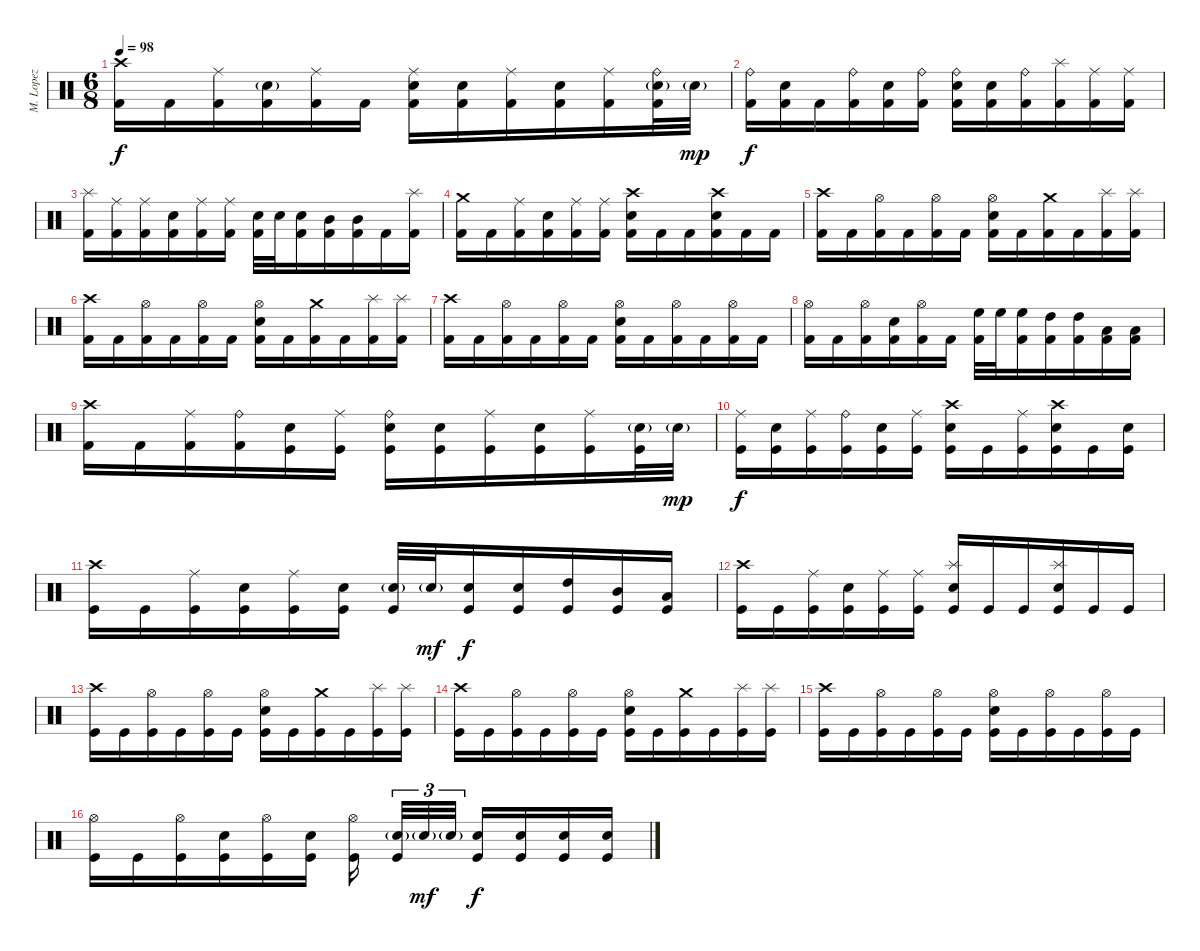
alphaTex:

\track ("M. Lopez" "M. Lopez") {instrument percussion}
\staff {score}
\articulation defaults
\ts (6 8)
\tempo 98
\clef neutral
\ks c
("Crash high (hit)" "Kick (hit) 2").16{dy f} "Kick (hit) 2".16 ("Ride (middle)" "Kick (hit) 2").16 ("Electric Snare (hit)"{g} "Kick (hit) 2").16 ("Ride (middle)" "Kick (hit) 2").16 "Kick (hit) 2".16 ("Ride (middle)" "Electric Snare (hit)" "Kick (hit) 2").16 ("Electric Snare (hit)" "Kick (hit) 2").16 ("Ride (middle)" "Kick (hit) 2").16 ("Electric Snare (hit)" "Kick (hit) 2").16 ("Ride (middle)" "Kick (hit) 2").16 ("Ride (bell)" "Electric Snare (hit)"{g} "Kick (hit) 2").32 "Electric Snare (hit)"{g}.32{dy mp} |
("Ride (bell)" "Kick (hit) 2").16{dy f} ("Electric Snare (hit)" "Kick (hit) 2").16 "Kick (hit) 2".16 ("Ride (bell)" "Kick (hit) 2").16 ("Electric Snare (hit)" "Kick (hit) 2").16 ("Ride (bell)" "Kick (hit) 2").16 ("Ride (bell)" "Electric Snare (hit)" "Kick (hit) 2").16 ("Electric Snare (hit)" "Kick (hit) 2").16 ("Ride (bell)" "Kick (hit) 2").16 ("Splash (hit)" "Kick (hit) 2").16 ("Ride (middle)" "Kick (hit) 2").16 ("Ride (middle)" "Kick (hit) 2").16 |
("Splash (hit)" "Kick (hit) 2").16 ("Ride (middle)" "Kick (hit) 2").16 ("Ride (middle)" "Kick (hit) 2").16 ("Electric Snare (hit)" "Kick (hit) 2").16 ("Ride (middle)" "Kick (hit) 2").16 ("Ride (middle)" "Kick (hit) 2").16 ("Electric Snare (hit)" "Kick (hit) 2").32 "Electric Snare (hit)".32 ("Electric Snare (hit)" "Kick (hit) 2").16 ("Mid Tom (hit)" "Kick (hit) 2").16 ("Mid Tom (hit)" "Kick (hit) 2").16 "Kick (hit) 2".16 ("Splash (hit)" "Kick (hit) 2").16 |
("Crash medium (hit)" "Kick (hit) 2").16 "Kick (hit) 2".16 ("Ride (middle)" "Kick (hit) 2").16 ("Electric Snare (hit)" "Kick (hit) 2").16 ("Ride (middle)" "Kick (hit) 2").16 ("Ride (middle)" "Kick (hit) 2").16 ("Crash high (hit)" "Electric Snare (hit)" "Kick (hit) 2").16 "Kick (hit) 2".16 "Kick (hit) 2".16 ("Crash high (hit)" "Electric Snare (hit)" "Kick (hit) 2").16 "Kick (hit) 2".16 "Kick (hit) 2".16 |
("Crash high (hit)" "Kick (hit) 2").16 "Kick (hit) 2".16 ("Hi-Hat (open)" "Kick (hit) 2").16 "Kick (hit) 2".16 ("Hi-Hat (open)" "Kick (hit) 2").16 "Kick (hit) 2".16 ("Hi-Hat (open)" "Electric Snare (hit)" "Kick (hit) 2").16 "Kick (hit) 2".16 ("Crash medium (hit)" "Kick (hit) 2").16 "Kick (hit) 2".16 ("Splash (hit)" "Kick (hit) 2").16 ("Splash (hit)" "Kick (hit) 2").16 |
("Crash high (hit)" "Kick (hit) 2").16 "Kick (hit) 2".16 ("Hi-Hat (open)" "Kick (hit) 2").16 "Kick (hit) 2".16 ("Hi-Hat (open)" "Kick (hit) 2").16 "Kick (hit) 2".16 ("Hi-Hat (open)" "Electric Snare (hit)" "Kick (hit) 2").16 "Kick (hit) 2".16 ("Crash medium (hit)" "Kick (hit) 2").16 "Kick (hit) 2".16 ("Splash (hit)" "Kick (hit) 2").16 ("Splash (hit)" "Kick (hit) 2").16 |
("Crash high (hit)" "Kick (hit) 2").16 "Kick (hit) 2".16 ("Hi-Hat (open)" "Kick (hit) 2").16 "Kick (hit) 2".16 ("Hi-Hat (open)" "Kick (hit) 2").16 "Kick (hit) 2".16 ("Hi-Hat (open)" "Electric Snare (hit)" "Kick (hit) 2").16 "Kick (hit) 2".16 ("Hi-Hat (open)" "Kick (hit) 2").16 "Kick (hit) 2".16 ("Hi-Hat (open)" "Kick (hit) 2").16 "Kick (hit) 2".16 |
("Hi-Hat (open)" "Kick (hit) 2").16 "Kick (hit) 2".16 ("Hi-Hat (open)" "Kick (hit) 2").16 ("Electric Snare (hit)" "Kick (hit) 2").16 ("Hi-Hat (open)" "Kick (hit) 2").16 "Kick (hit) 2".16 ("High Floor Tom (hit)" "Kick (hit) 2").32 "High Floor Tom (hit)".32 ("High Floor Tom (hit)" "Kick (hit) 2").16 ("High Tom (hit)" "Kick (hit) 2").16 ("High Tom (hit)" "Kick (hit) 2").16 ("Low Tom (hit)" "Kick (hit) 2").16 ("Low Tom (hit)" "Kick (hit) 2").16 |
("Crash high (hit)" "Kick (hit) 2").16 "Kick (hit) 2".16 ("Ride (middle)" "Kick (hit) 2").16 ("Ride (bell)" "Kick (hit) 2").16 ("Electric Snare (hit)" "Kick (hit)").16 ("Ride (middle)" "Kick (hit)").16 ("Ride (bell)" "Electric Snare (hit)" "Kick (hit)").16 ("Electric Snare (hit)" "Kick (hit)").16 ("Ride (middle)" "Kick (hit)").16 ("Electric Snare (hit)" "Kick (hit)").16 ("Ride (middle)" "Kick (hit)").16 ("Electric Snare (hit)"{g} "Kick (hit)").32 "Electric Snare (hit)"{g}.32{dy mp} |
("Ride (middle)" "Kick (hit)").16{dy f} ("Electric Snare (hit)" "Kick (hit)").16 ("Ride (middle)" "Kick (hit)").16 ("Ride (bell)" "Kick (hit)").16 ("Electric Snare (hit)" "Kick (hit)").16 ("Ride (middle)" "Kick (hit)").16 ("Crash high (hit)" "Electric Snare (hit)" "Kick (hit)").16 "Kick (hit)".16 ("Ride (middle)" "Kick (hit)").16 ("Crash high (hit)" "Electric Snare (hit)" "Kick (hit)").16 "Kick (hit)".16 ("Electric Snare (hit)" "Kick (hit)").16 |
("Crash high (hit)" "Kick (hit)").16 "Kick (hit)".16 ("Ride (middle)" "Kick (hit)").16 ("Electric Snare (hit)" "Kick (hit)").16 ("Ride (middle)" "Kick (hit)").16 ("Electric Snare (hit)" "Kick (hit)").16 ("Electric Snare (hit)"{g} "Kick (hit)").32 "Electric Snare (hit)"{g}.32{dy mf} ("Electric Snare (hit)" "Kick (hit)").16{dy f} ("Electric Snare (hit)" "Kick (hit)").16 ("High Tom (hit)" "Kick (hit)").16 ("Mid Tom (hit)" "Kick (hit)").16 ("Low Tom (hit)" "Kick (hit)").16 |
("Crash high (hit)" "Kick (hit)").16 "Kick (hit)".16 ("Ride (middle)" "Kick (hit)").16 ("Electric Snare (hit)" "Kick (hit)").16 ("Ride (middle)" "Kick (hit)").16 ("Ride (middle)" "Kick (hit)").16 ("Splash (hit)" "Electric Snare (hit)" "Kick (hit)").16 "Kick (hit)".16 "Kick (hit)".16 ("Splash (hit)" "Electric Snare (hit)" "Kick (hit)").16 "Kick (hit)".16 "Kick (hit)".16 |
("Crash high (hit)" "Kick (hit)").16 "Kick (hit)".16 ("Hi-Hat (open)" "Kick (hit)").16 "Kick (hit)".16 ("Hi-Hat (open)" "Kick (hit)").16 "Kick (hit)".16 ("Hi-Hat (open)" "Electric Snare (hit)" "Kick (hit)").16 "Kick (hit)".16 ("Crash medium (hit)" "Kick (hit)").16 "Kick (hit)".16 ("Splash (hit)" "Kick (hit)").16 ("Splash (hit)" "Kick (hit)").16 |
("Crash high (hit)" "Kick (hit)").16 "Kick (hit)".16 ("Hi-Hat (open)" "Kick (hit)").16 "Kick (hit)".16 ("Hi-Hat (open)" "Kick (hit)").16 "Kick (hit)".16 ("Hi-Hat (open)" "Electric Snare (hit)" "Kick (hit)").16 "Kick (hit)".16 ("Crash medium (hit)" "Kick (hit)").16 "Kick (hit)".16 ("Splash (hit)" "Kick (hit)").16 ("Splash (hit)" "Kick (hit)").16 |
("Crash high (hit)" "Kick (hit)").16 "Kick (hit)".16 ("Hi-Hat (open)" "Kick (hit)").16 "Kick (hit)".16 ("Hi-Hat (open)" "Kick (hit)").16 "Kick (hit)".16 ("Hi-Hat (open)" "Electric Snare (hit)" "Kick (hit)").16 "Kick (hit)".16 ("Hi-Hat (open)" "Kick (hit)").16 "Kick (hit)".16 ("Hi-Hat (open)" "Kick (hit)").16 "Kick (hit)".16 |
("Hi-Hat (open)" "Kick (hit)").16 "Kick (hit)".16 ("Hi-Hat (open)" "Kick (hit)").16 ("Electric Snare (hit)" "Kick (hit)").16 ("Hi-Hat (open)" "Kick (hit)").16 ("Electric Snare (hit)" "Kick (hit)").16 ("Hi-Hat (open)" "Kick (hit)").16 ("Electric Snare (hit)"{g} "Kick (hit)").32{tu (3 2)} "Electric Snare (hit)"{g}.32{tu (3 2) dy mf} "Electric Snare (hit)"{g}.32{tu (3 2)} ("Electric Snare (hit)" "Kick (hit)").16{dy f} ("Electric Snare (hit)" "Kick (hit)").16 ("Electric Snare (hit)" "Kick (hit)").16 ("Electric Snare (hit)" "Kick (hit)").16
